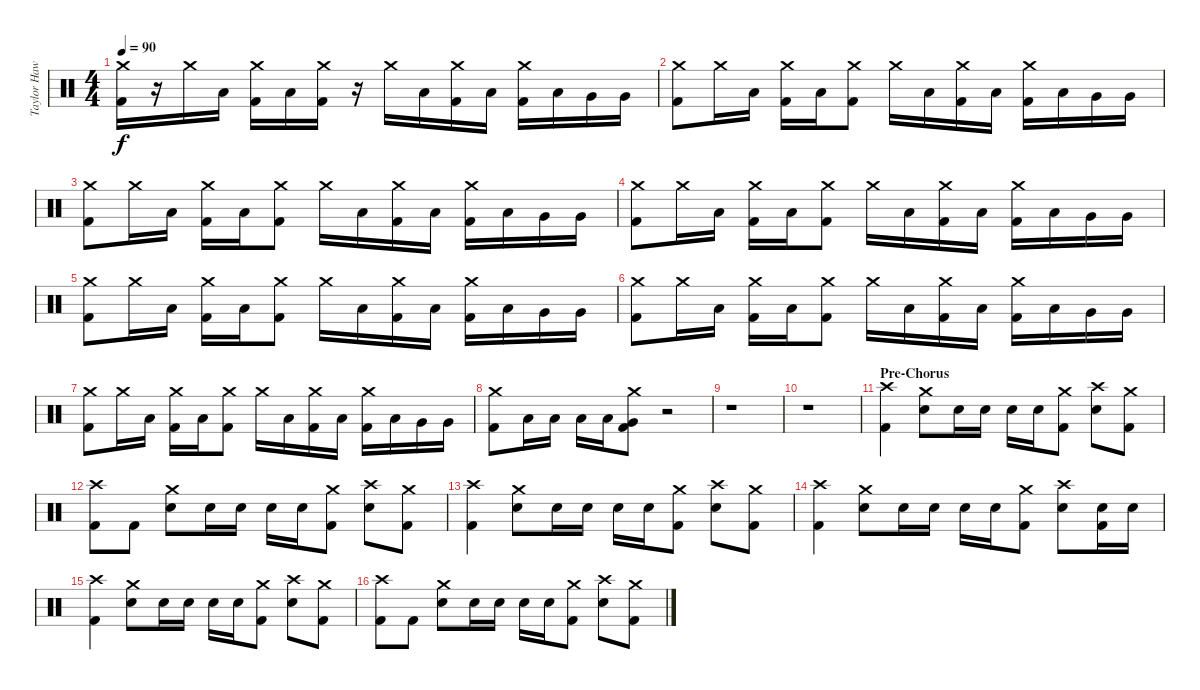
\track ("Taylor Hawkins" "Taylor Haw") {instrument percussion}
\staff {score}
\articulation defaults
\ts (4 4)
\tempo 90
\clef neutral
\ks c
("Crash medium (hit)" "Kick (hit) 2").16{dy f} r.16 "Crash medium (hit)".16 "Low Tom (hit)".16 ("Crash medium (hit)" "Kick (hit) 2").16 "Low Tom (hit)".16 ("Crash medium (hit)" "Kick (hit) 2").16 r.16 "Crash medium (hit)".16 "Low Tom (hit)".16 ("Crash medium (hit)" "Kick (hit) 2").16 "Low Tom (hit)".16 ("Crash medium (hit)" "Kick (hit) 2").16 "Low Tom (hit)".16 "Very Low Tom (hit)".16 "Very Low Tom (hit)".16 |
("Crash medium (hit)" "Kick (hit) 2").8 "Crash medium (hit)".16 "Low Tom (hit)".16 ("Crash medium (hit)" "Kick (hit) 2").16 "Low Tom (hit)".16 ("Crash medium (hit)" "Kick (hit) 2").8 "Crash medium (hit)".16 "Low Tom (hit)".16 ("Crash medium (hit)" "Kick (hit) 2").16 "Low Tom (hit)".16 ("Crash medium (hit)" "Kick (hit) 2").16 "Low Tom (hit)".16 "Very Low Tom (hit)".16 "Very Low Tom (hit)".16 |
("Crash medium (hit)" "Kick (hit) 2").8 "Crash medium (hit)".16 "Low Tom (hit)".16 ("Crash medium (hit)" "Kick (hit) 2").16 "Low Tom (hit)".16 ("Crash medium (hit)" "Kick (hit) 2").8 "Crash medium (hit)".16 "Low Tom (hit)".16 ("Crash medium (hit)" "Kick (hit) 2").16 "Low Tom (hit)".16 ("Crash medium (hit)" "Kick (hit) 2").16 "Low Tom (hit)".16 "Very Low Tom (hit)".16 "Very Low Tom (hit)".16 |
("Crash medium (hit)" "Kick (hit) 2").8 "Crash medium (hit)".16 "Low Tom (hit)".16 ("Crash medium (hit)" "Kick (hit) 2").16 "Low Tom (hit)".16 ("Crash medium (hit)" "Kick (hit) 2").8 "Crash medium (hit)".16 "Low Tom (hit)".16 ("Crash medium (hit)" "Kick (hit) 2").16 "Low Tom (hit)".16 ("Crash medium (hit)" "Kick (hit) 2").16 "Low Tom (hit)".16 "Very Low Tom (hit)".16 "Very Low Tom (hit)".16 |
("Crash medium (hit)" "Kick (hit) 2").8 "Crash medium (hit)".16 "Low Tom (hit)".16 ("Crash medium (hit)" "Kick (hit) 2").16 "Low Tom (hit)".16 ("Crash medium (hit)" "Kick (hit) 2").8 "Crash medium (hit)".16 "Low Tom (hit)".16 ("Crash medium (hit)" "Kick (hit) 2").16 "Low Tom (hit)".16 ("Crash medium (hit)" "Kick (hit) 2").16 "Low Tom (hit)".16 "Very Low Tom (hit)".16 "Very Low Tom (hit)".16 |
("Crash medium (hit)" "Kick (hit) 2").8 "Crash medium (hit)".16 "Low Tom (hit)".16 ("Crash medium (hit)" "Kick (hit) 2").16 "Low Tom (hit)".16 ("Crash medium (hit)" "Kick (hit) 2").8 "Crash medium (hit)".16 "Low Tom (hit)".16 ("Crash medium (hit)" "Kick (hit) 2").16 "Low Tom (hit)".16 ("Crash medium (hit)" "Kick (hit) 2").16 "Low Tom (hit)".16 "Very Low Tom (hit)".16 "Very Low Tom (hit)".16 |
("Crash medium (hit)" "Kick (hit) 2").8 "Crash medium (hit)".16 "Low Tom (hit)".16 ("Crash medium (hit)" "Kick (hit) 2").16 "Low Tom (hit)".16 ("Crash medium (hit)" "Kick (hit) 2").8 "Crash medium (hit)".16 "Low Tom (hit)".16 ("Crash medium (hit)" "Kick (hit) 2").16 "Low Tom (hit)".16 ("Crash medium (hit)" "Kick (hit) 2").16 "Low Tom (hit)".16 "Very Low Tom (hit)".16 "Very Low Tom (hit)".16 |
("Crash medium (hit)" "Kick (hit) 2").8 "Low Tom (hit)".16 "Low Tom (hit)".16 "Low Tom (hit)".16 "Low Tom (hit)".16 ("Crash medium (hit)" "Very Low Tom (hit)" "Kick (hit) 2").8 r.2 |
r.1 |
r.1 |
\section ("" "Pre-Chorus")
("Crash high (hit)" "Kick (hit) 2").4 ("Crash medium (hit)" "Electric Snare (hit)").8 "Electric Snare (hit)".16 "Electric Snare (hit)".16 "Electric Snare (hit)".16 "Electric Snare (hit)".16 ("Crash medium (hit)" "Kick (hit) 2").8 ("Crash high (hit)" "Electric Snare (hit)").8 ("Crash medium (hit)" "Kick (hit) 2").8 |
("Crash high (hit)" "Kick (hit) 2").8 "Kick (hit) 2".8 ("Crash medium (hit)" "Electric Snare (hit)").8 "Electric Snare (hit)".16 "Electric Snare (hit)".16 "Electric Snare (hit)".16 "Electric Snare (hit)".16 ("Crash medium (hit)" "Kick (hit) 2").8 ("Crash high (hit)" "Electric Snare (hit)").8 ("Crash medium (hit)" "Kick (hit) 2").8 |
("Crash high (hit)" "Kick (hit) 2").4 ("Crash medium (hit)" "Electric Snare (hit)").8 "Electric Snare (hit)".16 "Electric Snare (hit)".16 "Electric Snare (hit)".16 "Electric Snare (hit)".16 ("Crash medium (hit)" "Kick (hit) 2").8 ("Crash high (hit)" "Electric Snare (hit)").8 ("Crash medium (hit)" "Kick (hit) 2").8 |
("Crash high (hit)" "Kick (hit) 2").4 ("Crash medium (hit)" "Electric Snare (hit)").8 "Electric Snare (hit)".16 "Electric Snare (hit)".16 "Electric Snare (hit)".16 "Electric Snare (hit)".16 ("Crash medium (hit)" "Kick (hit) 2").8 ("Crash high (hit)" "Electric Snare (hit)").8 ("Electric Snare (hit)" "Kick (hit) 2").16 "Electric Snare (hit)".16 |
("Crash high (hit)" "Kick (hit) 2").4 ("Crash medium (hit)" "Electric Snare (hit)").8 "Electric Snare (hit)".16 "Electric Snare (hit)".16 "Electric Snare (hit)".16 "Electric Snare (hit)".16 ("Crash medium (hit)" "Kick (hit) 2").8 ("Crash high (hit)" "Electric Snare (hit)").8 ("Crash medium (hit)" "Kick (hit) 2").8 |
("Crash high (hit)" "Kick (hit) 2").8 "Kick (hit) 2".8 ("Crash medium (hit)" "Electric Snare (hit)").8 "Electric Snare (hit)".16 "Electric Snare (hit)".16 "Electric Snare (hit)".16 "Electric Snare (hit)".16 ("Crash medium (hit)" "Kick (hit) 2").8 ("Crash high (hit)" "Electric Snare (hit)").8 ("Crash medium (hit)" "Kick (hit) 2").8
